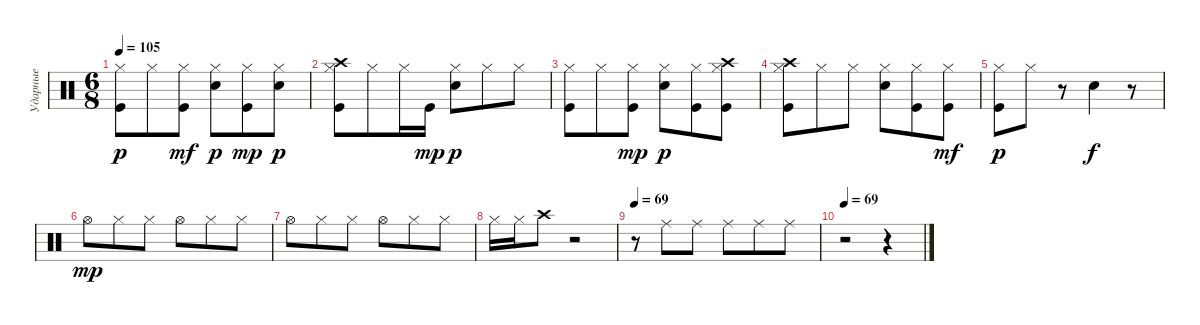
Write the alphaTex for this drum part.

\track ("Ударные" "Ударные") {instrument percussion}
\staff {score}
\articulation defaults
\ts (6 8)
\tempo 105
\clef neutral
\ks c
("Hi-Hat (closed)" "Kick (hit)").8{dy p} "Hi-Hat (closed)".8 ("Hi-Hat (closed)" "Kick (hit)").8{dy mf} ("Hi-Hat (closed)" "Electric Snare (hit)").8{dy p} ("Hi-Hat (closed)" "Kick (hit)").8{dy mp} ("Hi-Hat (closed)" "Electric Snare (hit)").8{dy p} |
("Crash high (hit)" "Hi-Hat (closed)" "Kick (hit)").8 "Hi-Hat (closed)".8 "Hi-Hat (closed)".16 "Kick (hit)".16{dy mp} ("Hi-Hat (closed)" "Electric Snare (hit)").8{dy p} "Hi-Hat (closed)".8 "Hi-Hat (closed)".8 |
("Hi-Hat (closed)" "Kick (hit)").8 "Hi-Hat (closed)".8 ("Hi-Hat (closed)" "Kick (hit)").8{dy mp} ("Hi-Hat (closed)" "Electric Snare (hit)").8{dy p} ("Hi-Hat (closed)" "Kick (hit)").8 ("Crash high (hit)" "Hi-Hat (closed)" "Kick (hit)").8 |
("Crash high (hit)" "Hi-Hat (closed)" "Kick (hit)").8 "Hi-Hat (closed)".8 "Hi-Hat (closed)".8 ("Hi-Hat (closed)" "Electric Snare (hit)").8 ("Hi-Hat (closed)" "Kick (hit)").8 ("Hi-Hat (closed)" "Kick (hit)").8{dy mf} |
("Hi-Hat (closed)" "Kick (hit)").8{dy p} "Hi-Hat (closed)".8 r.8 "Electric Snare (hit)".4{dy f} r.8 |
"Hi-Hat (open)".8{dy mp} "Hi-Hat (closed)".8 "Hi-Hat (closed)".8 "Hi-Hat (open)".8 "Hi-Hat (closed)".8 "Hi-Hat (closed)".8 |
"Hi-Hat (open)".8 "Hi-Hat (closed)".8 "Hi-Hat (closed)".8 "Hi-Hat (open)".8 "Hi-Hat (closed)".8 "Hi-Hat (closed)".8 |
"Hi-Hat (closed)".16 "Hi-Hat (closed)".16 "Crash high (hit)".8 r.2 |
\tempo 69
r.8 "Ride (middle)".8 "Ride (middle)".8 "Ride (middle)".8 "Ride (middle)".8 "Ride (middle)".8 |
\tempo 69
r.2 r.4
